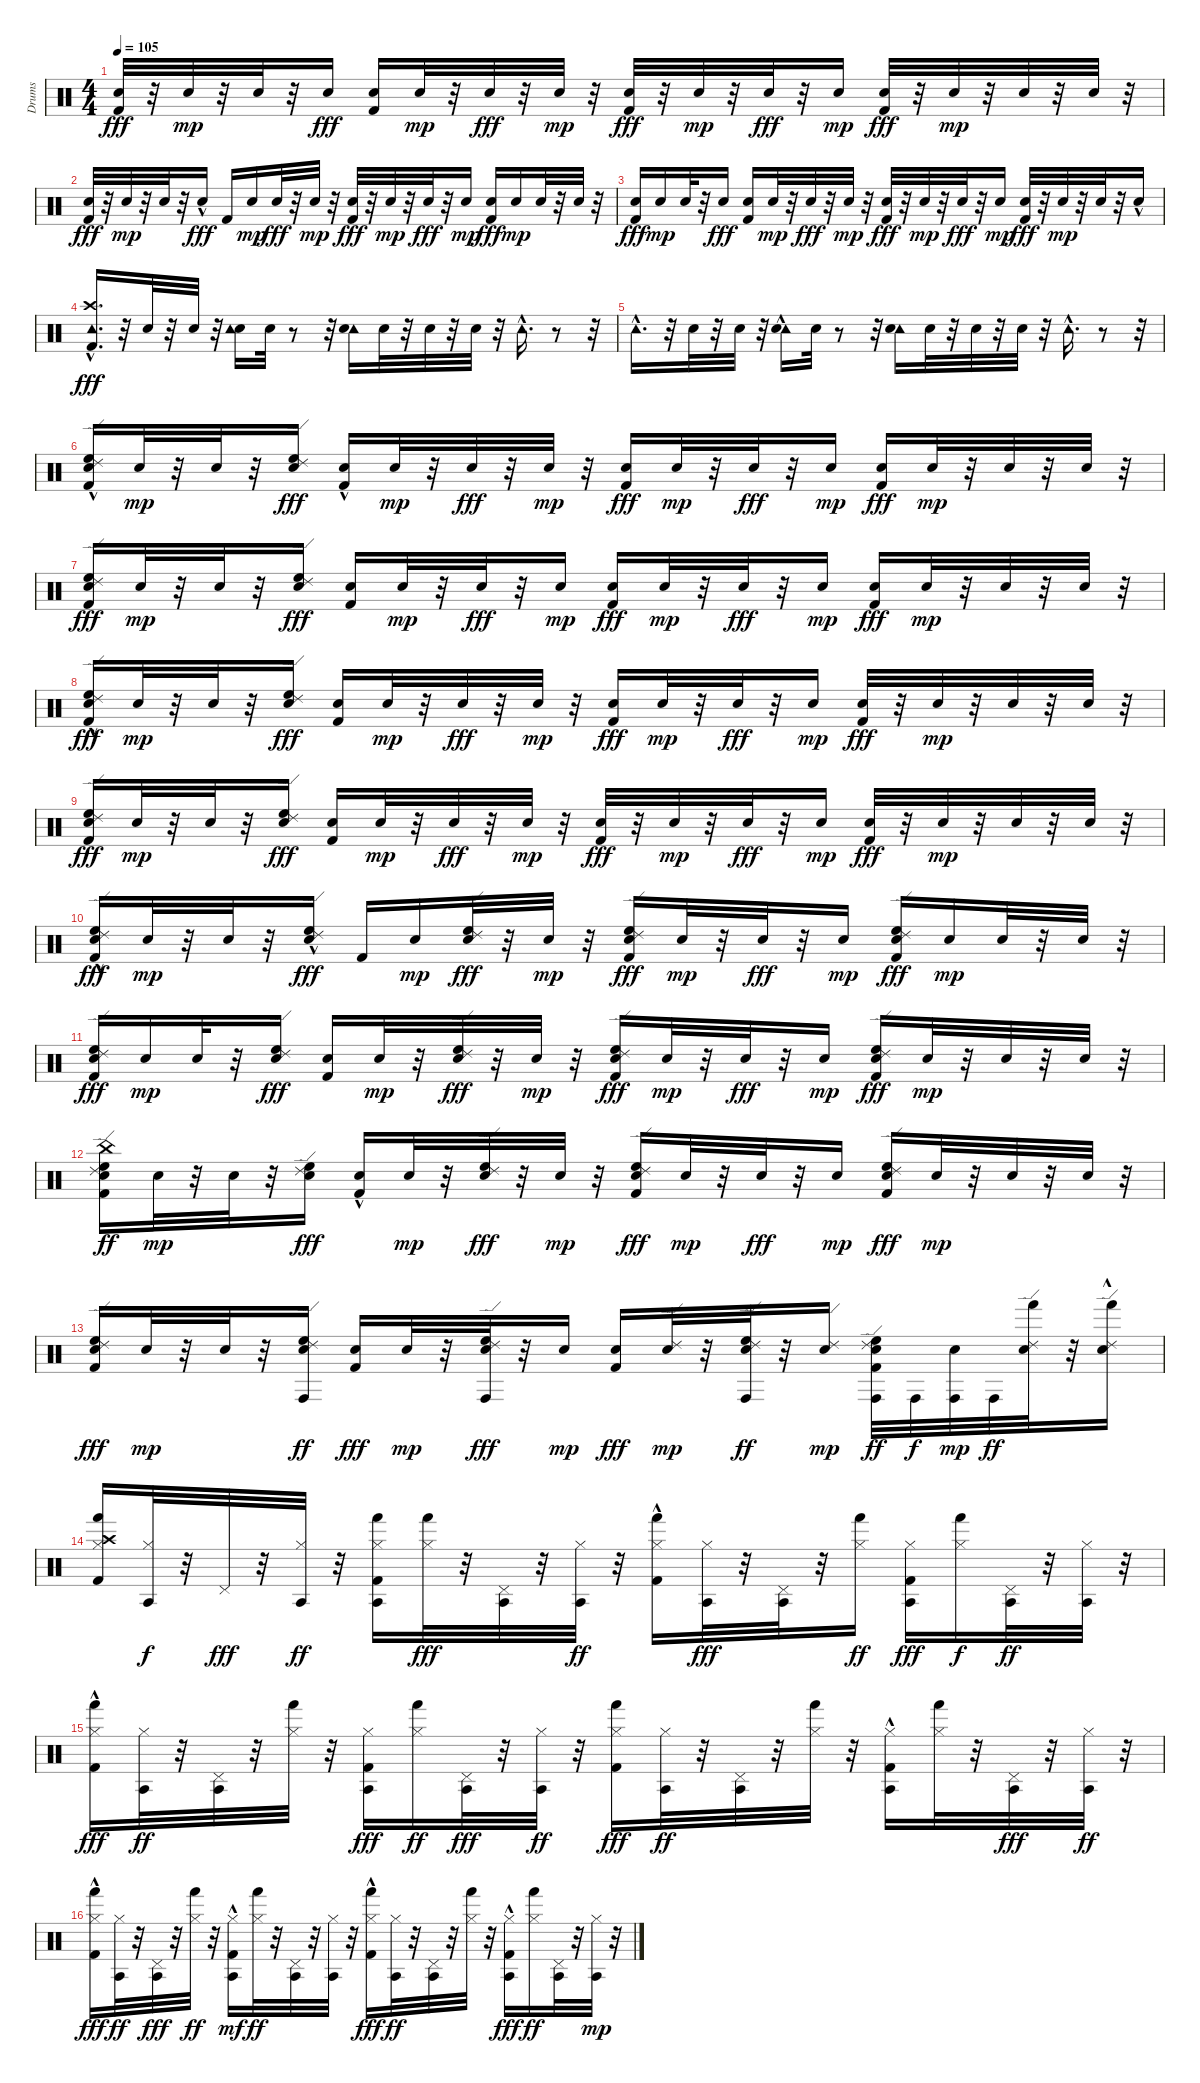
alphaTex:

\track ("Drums" "Drums") {instrument percussion}
\staff {score}
\articulation defaults
\ts (4 4)
\tempo 105
\clef neutral
\ks c
("Kick (hit) 2" "Snare (hit) 2").32{dy fff} r.32 "Snare (hit) 2".32{dy mp} r.32 "Snare (hit) 2".32 r.32 "Snare (hit) 2".16{dy fff} ("Snare (hit) 2" "Kick (hit) 2").16 "Snare (hit) 2".32{dy mp} r.32 "Snare (hit) 2".32{dy fff} r.32 "Snare (hit) 2".32{dy mp} r.32 ("Snare (hit) 2" "Kick (hit) 2").32{dy fff} r.32 "Snare (hit) 2".32{dy mp} r.32 "Snare (hit) 2".32{dy fff} r.32 "Snare (hit) 2".16{dy mp} ("Kick (hit) 2" "Snare (hit) 2").32{dy fff} r.32 "Snare (hit) 2".32{dy mp} r.32 "Snare (hit) 2".32 r.32 "Snare (hit) 2".32 r.32 |
("Snare (hit) 2" "Kick (hit) 2").32{dy fff} r.32 "Snare (hit) 2".32{dy mp} r.32 "Snare (hit) 2".32 r.32 "Snare (hit) 2"{hac}.16{dy fff} "Kick (hit) 2".16 "Snare (hit) 2".16{dy mp} "Snare (hit) 2".32{dy fff} r.32 "Snare (hit) 2".32{dy mp} r.32 ("Snare (hit) 2" "Kick (hit) 2").32{dy fff} r.32 "Snare (hit) 2".32{dy mp} r.32 "Snare (hit) 2".32{dy fff} r.32 "Snare (hit) 2".16{dy mp} ("Snare (hit) 2" "Kick (hit) 2").16{dy fff} "Snare (hit) 2".16{dy mp} "Snare (hit) 2".32 r.32 "Snare (hit) 2".32 r.32 |
("Snare (hit) 2" "Kick (hit) 2").16{dy fff} "Snare (hit) 2".16{dy mp} "Snare (hit) 2".32 r.32 "Snare (hit) 2".16{dy fff} ("Snare (hit) 2" "Kick (hit) 2").16 "Snare (hit) 2".32{dy mp} r.32 "Snare (hit) 2".32{dy fff} r.32 "Snare (hit) 2".32{dy mp} r.32 ("Snare (hit) 2" "Kick (hit) 2").32{dy fff} r.32 "Snare (hit) 2".32{dy mp} r.32 "Snare (hit) 2".32{dy fff} r.32 "Snare (hit) 2".16{dy mp} ("Snare (hit) 2" "Kick (hit) 2").32{dy fff} r.32 "Snare (hit) 2".32{dy mp} r.32 "Snare (hit) 2".32 r.32 "Snare (hit) 2"{hac}.16 |
("Crash high (hit)" "Kick (hit) 2" "Tambourine (hit)"{hac}).16{d dy fff} r.32 "Snare (hit) 2".32 r.32 "Snare (hit) 2".32 r.32 ("Snare (hit) 2" "Tambourine (hit)").16 "Snare (hit) 2".32 r.8 r.32 ("Tambourine (hit)" "Snare (hit) 2").16 "Snare (hit) 2".32 r.32 "Snare (hit) 2".32 r.32 "Snare (hit) 2".32 r.32 "Tambourine (hit)"{hac}.16{d} r.8 r.32 |
"Tambourine (hit)"{hac}.16{d} r.32 "Snare (hit) 2".32 r.32 "Snare (hit) 2".32 r.32 ("Tambourine (hit)"{hac} "Snare (hit) 2").16 "Snare (hit) 2".32 r.8 r.32 ("Tambourine (hit)" "Snare (hit) 2").16 "Snare (hit) 2".32 r.32 "Snare (hit) 2".32 r.32 "Snare (hit) 2".32 r.32 "Tambourine (hit)"{hac}.16{d} r.8 r.32 |
("High Floor Tom (hit)"{hac} "Ride (edge) 2"{hac} "Snare (hit) 2" "Kick (hit) 2").16 "Snare (hit) 2".32{dy mp} r.32 "Snare (hit) 2".32 r.32 ("Ride (edge) 2" "High Floor Tom (hit)" "Snare (hit) 2").16{dy fff} ("Snare (hit) 2" "Kick (hit) 2"{hac}).16 "Snare (hit) 2".32{dy mp} r.32 "Snare (hit) 2".32{dy fff} r.32 "Snare (hit) 2".32{dy mp} r.32 ("Snare (hit) 2" "Kick (hit) 2").16{dy fff} "Snare (hit) 2".32{dy mp} r.32 "Snare (hit) 2".32{dy fff} r.32 "Snare (hit) 2".16{dy mp} ("Snare (hit) 2" "Kick (hit) 2").16{dy fff} "Snare (hit) 2".32{dy mp} r.32 "Snare (hit) 2".32 r.32 "Snare (hit) 2".32 r.32 |
("High Floor Tom (hit)" "Ride (edge) 2" "Snare (hit) 2" "Kick (hit) 2").16{dy fff} "Snare (hit) 2".32{dy mp} r.32 "Snare (hit) 2".32 r.32 ("Ride (edge) 2" "High Floor Tom (hit)" "Snare (hit) 2").16{dy fff} ("Snare (hit) 2" "Kick (hit) 2").16 "Snare (hit) 2".32{dy mp} r.32 "Snare (hit) 2".32{dy fff} r.32 "Snare (hit) 2".16{dy mp} ("Snare (hit) 2" "Kick (hit) 2").16{dy fff} "Snare (hit) 2".32{dy mp} r.32 "Snare (hit) 2".32{dy fff} r.32 "Snare (hit) 2".16{dy mp} ("Snare (hit) 2" "Kick (hit) 2").16{dy fff} "Snare (hit) 2".32{dy mp} r.32 "Snare (hit) 2".32 r.32 "Snare (hit) 2".32 r.32 |
("High Floor Tom (hit)" "Ride (edge) 2"{hac} "Kick (hit) 2" "Snare (hit) 2").16{dy fff} "Snare (hit) 2".32{dy mp} r.32 "Snare (hit) 2".32 r.32 ("High Floor Tom (hit)" "Ride (edge) 2" "Snare (hit) 2").16{dy fff} ("Snare (hit) 2" "Kick (hit) 2").16 "Snare (hit) 2".32{dy mp} r.32 "Snare (hit) 2".32{dy fff} r.32 "Snare (hit) 2".32{dy mp} r.32 ("Snare (hit) 2" "Kick (hit) 2").16{dy fff} "Snare (hit) 2".32{dy mp} r.32 "Snare (hit) 2".32{dy fff} r.32 "Snare (hit) 2".16{dy mp} ("Kick (hit) 2" "Snare (hit) 2").32{dy fff} r.32 "Snare (hit) 2".32{dy mp} r.32 "Snare (hit) 2".32 r.32 "Snare (hit) 2".32 r.32 |
("High Floor Tom (hit)" "Ride (edge) 2" "Kick (hit) 2" "Snare (hit) 2").16{dy fff} "Snare (hit) 2".32{dy mp} r.32 "Snare (hit) 2".32 r.32 ("High Floor Tom (hit)" "Ride (edge) 2" "Snare (hit) 2").16{dy fff} ("Snare (hit) 2" "Kick (hit) 2").16 "Snare (hit) 2".32{dy mp} r.32 "Snare (hit) 2".32{dy fff} r.32 "Snare (hit) 2".32{dy mp} r.32 ("Snare (hit) 2" "Kick (hit) 2").32{dy fff} r.32 "Snare (hit) 2".32{dy mp} r.32 "Snare (hit) 2".32{dy fff} r.32 "Snare (hit) 2".16{dy mp} ("Kick (hit) 2" "Snare (hit) 2").32{dy fff} r.32 "Snare (hit) 2".32{dy mp} r.32 "Snare (hit) 2".32 r.32 "Snare (hit) 2".32 r.32 |
("Ride (edge) 2"{hac} "High Floor Tom (hit)"{hac} "Snare (hit) 2" "Kick (hit) 2").16{dy fff} "Snare (hit) 2".32{dy mp} r.32 "Snare (hit) 2".32 r.32 ("High Floor Tom (hit)" "Ride (edge) 2" "Snare (hit) 2"{hac}).16{dy fff} "Kick (hit) 2".16 "Snare (hit) 2".16{dy mp} ("Ride (edge) 2" "High Floor Tom (hit)" "Snare (hit) 2").32{dy fff} r.32 "Snare (hit) 2".32{dy mp} r.32 ("Ride (edge) 2" "High Floor Tom (hit)" "Snare (hit) 2" "Kick (hit) 2").16{dy fff} "Snare (hit) 2".32{dy mp} r.32 "Snare (hit) 2".32{dy fff} r.32 "Snare (hit) 2".16{dy mp} ("High Floor Tom (hit)" "Ride (edge) 2" "Snare (hit) 2" "Kick (hit) 2").16{dy fff} "Snare (hit) 2".16{dy mp} "Snare (hit) 2".32 r.32 "Snare (hit) 2".32 r.32 |
("Ride (edge) 2" "High Floor Tom (hit)" "Snare (hit) 2" "Kick (hit) 2").16{dy fff} "Snare (hit) 2".16{dy mp} "Snare (hit) 2".32 r.32 ("High Floor Tom (hit)" "Ride (edge) 2" "Snare (hit) 2").16{dy fff} ("Snare (hit) 2" "Kick (hit) 2").16 "Snare (hit) 2".32{dy mp} r.32 ("High Floor Tom (hit)" "Ride (edge) 2" "Snare (hit) 2").32{dy fff} r.32 "Snare (hit) 2".32{dy mp} r.32 ("Ride (edge) 2" "High Floor Tom (hit)" "Snare (hit) 2" "Kick (hit) 2").16{dy fff} "Snare (hit) 2".32{dy mp} r.32 "Snare (hit) 2".32{dy fff} r.32 "Snare (hit) 2".16{dy mp} ("High Floor Tom (hit)" "Ride (edge) 2" "Snare (hit) 2" "Kick (hit) 2").16{dy fff} "Snare (hit) 2".32{dy mp} r.32 "Snare (hit) 2".32 r.32 "Snare (hit) 2".32 r.32 |
("Snare (hit) 2" "Kick (hit) 2" "Ride (edge) 2" "High Floor Tom (hit)" "China (hit)").16{dy ff} "Snare (hit) 2".32{dy mp} r.32 "Snare (hit) 2".32 r.32 ("Ride (edge) 2" "High Floor Tom (hit)" "Snare (hit) 2").16{dy fff} ("Snare (hit) 2" "Kick (hit) 2"{hac}).16 "Snare (hit) 2".32{dy mp} r.32 ("High Floor Tom (hit)" "Ride (edge) 2" "Snare (hit) 2").32{dy fff} r.32 "Snare (hit) 2".32{dy mp} r.32 ("Ride (edge) 2" "High Floor Tom (hit)" "Snare (hit) 2" "Kick (hit) 2").16{dy fff} "Snare (hit) 2".32{dy mp} r.32 "Snare (hit) 2".32{dy fff} r.32 "Snare (hit) 2".16{dy mp} ("High Floor Tom (hit)" "Ride (edge) 2" "Snare (hit) 2" "Kick (hit) 2").16{dy fff} "Snare (hit) 2".32{dy mp} r.32 "Snare (hit) 2".32 r.32 "Snare (hit) 2".32 r.32 |
("Snare (hit) 2" "Kick (hit) 2" "Ride (edge) 2" "High Floor Tom (hit)").16{dy fff} "Snare (hit) 2".32{dy mp} r.32 "Snare (hit) 2".32 r.32 ("High Floor Tom (hit)" "Ride (edge) 2" "Snare (hit) 2" "Conga high (hit)").16{dy ff} ("Snare (hit) 2" "Kick (hit) 2").16{dy fff} "Snare (hit) 2".32{dy mp} r.32 ("High Floor Tom (hit)" "Ride (edge) 2" "Snare (hit) 2" "Conga high (hit)").32{dy fff} r.32 "Snare (hit) 2".16{dy mp} ("Snare (hit) 2" "Kick (hit) 2").16{dy fff} ("Ride (edge) 2" "Snare (hit) 2").32{dy mp} r.32 ("Snare (hit) 2" "Ride (edge) 2" "High Floor Tom (hit)" "Conga high (hit)").32{dy ff} r.32 ("Ride (edge) 2" "Snare (hit) 2").16{dy mp} ("High Floor Tom (hit)" "Ride (edge) 2" "Snare (hit) 2" "Kick (hit) 2" "Conga high (hit)").32{dy ff} "Conga high (hit)".32{dy f} ("Snare (hit) 2" "Conga high (hit)").32{dy mp} "Conga high (hit)".32{dy ff} ("Ride (edge) 2" "Snare (hit) 2" "Hand (hit)").32 r.32 ("Ride (edge) 2" "Snare (hit) 2"{hac} "Hand (hit)").16 |
("Kick (hit) 2" "Crash high (hit)" "Hi-Hat (closed)" "Hand (hit)").16 ("Hi-Hat (closed)" "Agogo tow (hit)").32{dy f} r.32 "Pedal Hi-Hat (hit)".32{dy fff} r.32 ("Agogo tow (hit)" "Hi-Hat (closed)").32{dy ff} r.32 ("Hand (hit)" "Kick (hit) 2" "Hi-Hat (closed)" "Agogo tow (hit)").16 ("Hi-Hat (closed)" "Hand (hit)").32{dy fff} r.32 ("Pedal Hi-Hat (hit)" "Agogo tow (hit)").32 r.32 ("Hi-Hat (closed)" "Agogo tow (hit)").32{dy ff} r.32 ("Hand (hit)" "Kick (hit) 2"{hac} "Hi-Hat (closed)").16 ("Agogo tow (hit)" "Hi-Hat (closed)").32{dy fff} r.32 ("Agogo tow (hit)" "Pedal Hi-Hat (hit)").32 r.32 ("Hand (hit)" "Hi-Hat (closed)").16{dy ff} ("Agogo tow (hit)" "Kick (hit) 2" "Hi-Hat (closed)").16{dy fff} ("Hand (hit)" "Hi-Hat (closed)").16{dy f} ("Agogo tow (hit)" "Pedal Hi-Hat (hit)").32{dy ff} r.32 ("Agogo tow (hit)" "Hi-Hat (closed)").32 r.32 |
("Hand (hit)" "Hi-Hat (closed)" "Kick (hit) 2"{hac}).16{dy fff} ("Agogo tow (hit)" "Hi-Hat (closed)").32{dy ff} r.32 ("Agogo tow (hit)" "Pedal Hi-Hat (hit)").32 r.32 ("Hi-Hat (closed)" "Hand (hit)").32 r.32 ("Agogo tow (hit)" "Hi-Hat (closed)" "Kick (hit) 2").16{dy fff} ("Hand (hit)" "Hi-Hat (closed)").16{dy ff} ("Agogo tow (hit)" "Pedal Hi-Hat (hit)").32{dy fff} r.32 ("Agogo tow (hit)" "Hi-Hat (closed)").32{dy ff} r.32 ("Hand (hit)" "Kick (hit) 2" "Hi-Hat (closed)").16{dy fff} ("Agogo tow (hit)" "Hi-Hat (closed)").32{dy ff} r.32 ("Agogo tow (hit)" "Pedal Hi-Hat (hit)").32 r.32 ("Hi-Hat (closed)" "Hand (hit)").32 r.32 ("Agogo tow (hit)" "Kick (hit) 2"{hac} "Hi-Hat (closed)").16 ("Hand (hit)" "Hi-Hat (closed)").32 r.32 ("Agogo tow (hit)" "Pedal Hi-Hat (hit)").32{dy fff} r.32 ("Agogo tow (hit)" "Hi-Hat (closed)").32{dy ff} r.32 |
("Hand (hit)" "Hi-Hat (closed)" "Kick (hit) 2"{hac}).16{dy fff} ("Agogo tow (hit)" "Hi-Hat (closed)").32{dy ff} r.32 ("Agogo tow (hit)" "Pedal Hi-Hat (hit)").32{dy fff} r.32 ("Hi-Hat (closed)" "Hand (hit)").32{dy ff} r.32 ("Hi-Hat (closed)" "Kick (hit) 2"{hac} "Agogo tow (hit)").16{dy mf} ("Hi-Hat (closed)" "Hand (hit)").32{dy ff} r.32 ("Agogo tow (hit)" "Pedal Hi-Hat (hit)").32 r.32 ("Agogo tow (hit)" "Hi-Hat (closed)").32 r.32 ("Hand (hit)" "Hi-Hat (closed)" "Kick (hit) 2"{hac}).16{dy fff} ("Agogo tow (hit)" "Hi-Hat (closed)").32{dy ff} r.32 ("Agogo tow (hit)" "Pedal Hi-Hat (hit)").32 r.32 ("Hand (hit)" "Hi-Hat (closed)").32 r.32 ("Hi-Hat (closed)" "Kick (hit) 2"{hac} "Agogo tow (hit)").16{dy fff} ("Hand (hit)" "Hi-Hat (closed)").16{dy ff} ("Agogo tow (hit)" "Pedal Hi-Hat (hit)").32 r.32 ("Agogo tow (hit)" "Hi-Hat (closed)").32{dy mp} r.32
